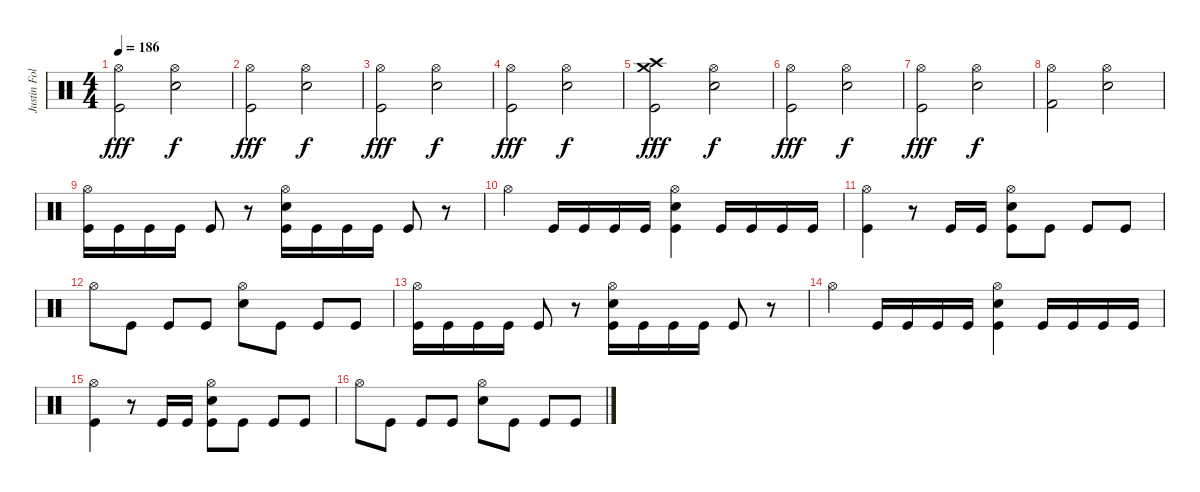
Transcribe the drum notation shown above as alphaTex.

\track ("Justin Foley" "Justin Fol") {instrument percussion}
\staff {score}
\articulation defaults
\ts (4 4)
\tempo 186
\clef neutral
\ks c
("Hi-Hat (open)" "Kick (hit)").2{dy fff} ("Hi-Hat (open)" "Electric Snare (hit)").2{dy f} |
("Hi-Hat (open)" "Kick (hit)").2{dy fff} ("Hi-Hat (open)" "Electric Snare (hit)").2{dy f} |
("Hi-Hat (open)" "Kick (hit)").2{dy fff} ("Hi-Hat (open)" "Electric Snare (hit)").2{dy f} |
("Hi-Hat (open)" "Kick (hit)").2{dy fff} ("Hi-Hat (open)" "Electric Snare (hit)").2{dy f} |
("Crash medium (hit)" "Crash high (hit)" "Kick (hit)").2{dy fff} ("Hi-Hat (open)" "Electric Snare (hit)").2{dy f} |
("Hi-Hat (open)" "Kick (hit)").2{dy fff} ("Hi-Hat (open)" "Electric Snare (hit)").2{dy f} |
("Hi-Hat (open)" "Kick (hit)").2{dy fff} ("Hi-Hat (open)" "Electric Snare (hit)").2{dy f} |
("Hi-Hat (open)" "Kick (hit) 2").2 ("Hi-Hat (open)" "Electric Snare (hit)").2 |
("Hi-Hat (open)" "Kick (hit)").16 "Kick (hit)".16 "Kick (hit)".16 "Kick (hit)".16 "Kick (hit)".8 r.8 ("Hi-Hat (open)" "Electric Snare (hit)" "Kick (hit)").16 "Kick (hit)".16 "Kick (hit)".16 "Kick (hit)".16 "Kick (hit)".8 r.8 |
"Hi-Hat (open)".4 "Kick (hit)".16 "Kick (hit)".16 "Kick (hit)".16 "Kick (hit)".16 ("Hi-Hat (open)" "Electric Snare (hit)" "Kick (hit)").4 "Kick (hit)".16 "Kick (hit)".16 "Kick (hit)".16 "Kick (hit)".16 |
("Hi-Hat (open)" "Kick (hit)").4 r.8 "Kick (hit)".16 "Kick (hit)".16 ("Hi-Hat (open)" "Electric Snare (hit)" "Kick (hit)").8 "Kick (hit)".8 "Kick (hit)".8 "Kick (hit)".8 |
"Hi-Hat (open)".8 "Kick (hit)".8 "Kick (hit)".8 "Kick (hit)".8 ("Hi-Hat (open)" "Electric Snare (hit)").8 "Kick (hit)".8 "Kick (hit)".8 "Kick (hit)".8 |
("Hi-Hat (open)" "Kick (hit)").16 "Kick (hit)".16 "Kick (hit)".16 "Kick (hit)".16 "Kick (hit)".8 r.8 ("Hi-Hat (open)" "Electric Snare (hit)" "Kick (hit)").16 "Kick (hit)".16 "Kick (hit)".16 "Kick (hit)".16 "Kick (hit)".8 r.8 |
"Hi-Hat (open)".4 "Kick (hit)".16 "Kick (hit)".16 "Kick (hit)".16 "Kick (hit)".16 ("Hi-Hat (open)" "Electric Snare (hit)" "Kick (hit)").4 "Kick (hit)".16 "Kick (hit)".16 "Kick (hit)".16 "Kick (hit)".16 |
("Hi-Hat (open)" "Kick (hit)").4 r.8 "Kick (hit)".16 "Kick (hit)".16 ("Hi-Hat (open)" "Electric Snare (hit)" "Kick (hit)").8 "Kick (hit)".8 "Kick (hit)".8 "Kick (hit)".8 |
"Hi-Hat (open)".8 "Kick (hit)".8 "Kick (hit)".8 "Kick (hit)".8 ("Hi-Hat (open)" "Electric Snare (hit)").8 "Kick (hit)".8 "Kick (hit)".8 "Kick (hit)".8
